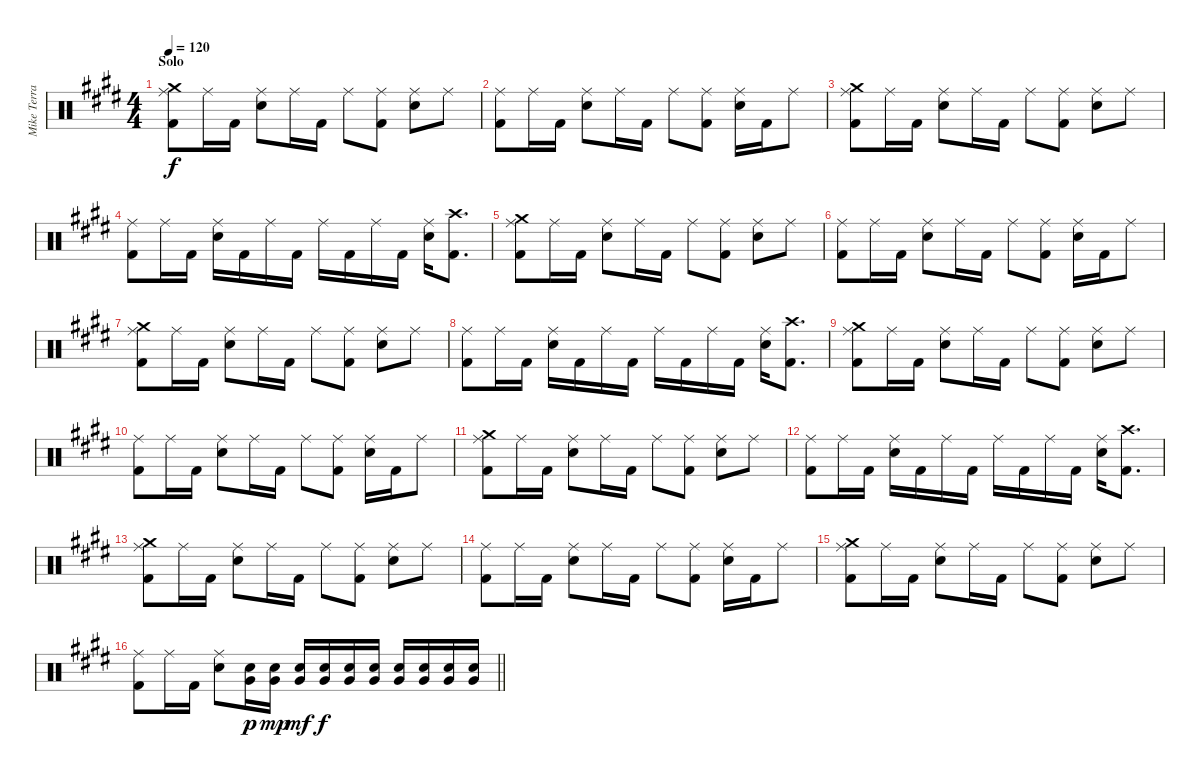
\track ("Mike Terrana" "Mike Terra") {instrument percussion}
\staff {score}
\articulation defaults
\ts (4 4)
\section ("" "Solo")
\tempo 120
\clef neutral
\ks c#minor
("Crash medium (hit)" "Ride (middle)" "Kick (hit) 2").8{dy f} "Ride (middle)".16 "Kick (hit) 2".16 ("Ride (middle)" "Snare (hit) 2").8 "Ride (middle)".16 "Kick (hit) 2".16 "Ride (middle)".8 ("Ride (middle)" "Kick (hit) 2").8 ("Ride (middle)" "Snare (hit) 2").8 "Ride (middle)".8 |
("Ride (middle)" "Kick (hit) 2").8 "Ride (middle)".16 "Kick (hit) 2".16 ("Ride (middle)" "Snare (hit) 2").8 "Ride (middle)".16 "Kick (hit) 2".16 "Ride (middle)".8 ("Ride (middle)" "Kick (hit) 2").8 ("Ride (middle)" "Snare (hit) 2").16 "Kick (hit) 2".16 "Ride (middle)".8 |
("Crash medium (hit)" "Ride (middle)" "Kick (hit) 2").8 "Ride (middle)".16 "Kick (hit) 2".16 ("Ride (middle)" "Snare (hit) 2").8 "Ride (middle)".16 "Kick (hit) 2".16 "Ride (middle)".8 ("Ride (middle)" "Kick (hit) 2").8 ("Ride (middle)" "Snare (hit) 2").8 "Ride (middle)".8 |
("Ride (middle)" "Kick (hit) 2").8 "Ride (middle)".16 "Kick (hit) 2".16 ("Ride (middle)" "Snare (hit) 2").16 "Kick (hit) 2".16 "Ride (middle)".16 "Kick (hit) 2".16 "Ride (middle)".16 "Kick (hit) 2".16 "Ride (middle)".16 "Kick (hit) 2".16 ("Ride (middle)" "Snare (hit) 2").16 ("Crash high (hit)" "Kick (hit) 2").8{d} |
("Crash medium (hit)" "Ride (middle)" "Kick (hit) 2").8 "Ride (middle)".16 "Kick (hit) 2".16 ("Ride (middle)" "Snare (hit) 2").8 "Ride (middle)".16 "Kick (hit) 2".16 "Ride (middle)".8 ("Ride (middle)" "Kick (hit) 2").8 ("Ride (middle)" "Snare (hit) 2").8 "Ride (middle)".8 |
("Ride (middle)" "Kick (hit) 2").8 "Ride (middle)".16 "Kick (hit) 2".16 ("Ride (middle)" "Snare (hit) 2").8 "Ride (middle)".16 "Kick (hit) 2".16 "Ride (middle)".8 ("Ride (middle)" "Kick (hit) 2").8 ("Ride (middle)" "Snare (hit) 2").16 "Kick (hit) 2".16 "Ride (middle)".8 |
("Crash medium (hit)" "Ride (middle)" "Kick (hit) 2").8 "Ride (middle)".16 "Kick (hit) 2".16 ("Ride (middle)" "Snare (hit) 2").8 "Ride (middle)".16 "Kick (hit) 2".16 "Ride (middle)".8 ("Ride (middle)" "Kick (hit) 2").8 ("Ride (middle)" "Snare (hit) 2").8 "Ride (middle)".8 |
("Ride (middle)" "Kick (hit) 2").8 "Ride (middle)".16 "Kick (hit) 2".16 ("Ride (middle)" "Snare (hit) 2").16 "Kick (hit) 2".16 "Ride (middle)".16 "Kick (hit) 2".16 "Ride (middle)".16 "Kick (hit) 2".16 "Ride (middle)".16 "Kick (hit) 2".16 ("Ride (middle)" "Snare (hit) 2").16 ("Crash high (hit)" "Kick (hit) 2").8{d} |
("Crash medium (hit)" "Ride (middle)" "Kick (hit) 2").8 "Ride (middle)".16 "Kick (hit) 2".16 ("Ride (middle)" "Snare (hit) 2").8 "Ride (middle)".16 "Kick (hit) 2".16 "Ride (middle)".8 ("Ride (middle)" "Kick (hit) 2").8 ("Ride (middle)" "Snare (hit) 2").8 "Ride (middle)".8 |
("Ride (middle)" "Kick (hit) 2").8 "Ride (middle)".16 "Kick (hit) 2".16 ("Ride (middle)" "Snare (hit) 2").8 "Ride (middle)".16 "Kick (hit) 2".16 "Ride (middle)".8 ("Ride (middle)" "Kick (hit) 2").8 ("Ride (middle)" "Snare (hit) 2").16 "Kick (hit) 2".16 "Ride (middle)".8 |
("Crash medium (hit)" "Ride (middle)" "Kick (hit) 2").8 "Ride (middle)".16 "Kick (hit) 2".16 ("Ride (middle)" "Snare (hit) 2").8 "Ride (middle)".16 "Kick (hit) 2".16 "Ride (middle)".8 ("Ride (middle)" "Kick (hit) 2").8 ("Ride (middle)" "Snare (hit) 2").8 "Ride (middle)".8 |
("Ride (middle)" "Kick (hit) 2").8 "Ride (middle)".16 "Kick (hit) 2".16 ("Ride (middle)" "Snare (hit) 2").16 "Kick (hit) 2".16 "Ride (middle)".16 "Kick (hit) 2".16 "Ride (middle)".16 "Kick (hit) 2".16 "Ride (middle)".16 "Kick (hit) 2".16 ("Ride (middle)" "Snare (hit) 2").16 ("Crash high (hit)" "Kick (hit) 2").8{d} |
("Crash medium (hit)" "Ride (middle)" "Kick (hit) 2").8 "Ride (middle)".16 "Kick (hit) 2".16 ("Ride (middle)" "Snare (hit) 2").8 "Ride (middle)".16 "Kick (hit) 2".16 "Ride (middle)".8 ("Ride (middle)" "Kick (hit) 2").8 ("Ride (middle)" "Snare (hit) 2").8 "Ride (middle)".8 |
("Ride (middle)" "Kick (hit) 2").8 "Ride (middle)".16 "Kick (hit) 2".16 ("Ride (middle)" "Snare (hit) 2").8 "Ride (middle)".16 "Kick (hit) 2".16 "Ride (middle)".8 ("Ride (middle)" "Kick (hit) 2").8 ("Ride (middle)" "Snare (hit) 2").16 "Kick (hit) 2".16 "Ride (middle)".8 |
("Crash medium (hit)" "Ride (middle)" "Kick (hit) 2").8 "Ride (middle)".16 "Kick (hit) 2".16 ("Ride (middle)" "Snare (hit) 2").8 "Ride (middle)".16 "Kick (hit) 2".16 "Ride (middle)".8 ("Ride (middle)" "Kick (hit) 2").8 ("Ride (middle)" "Snare (hit) 2").8 "Ride (middle)".8 |
\barLineRight lightlight
("Ride (middle)" "Kick (hit) 2").8 "Ride (middle)".16 "Kick (hit) 2".16 ("Ride (middle)" "Snare (hit) 2").8 ("Snare (hit) 2" "Very Low Tom (hit)").16{dy p} ("Snare (hit) 2" "Very Low Tom (hit)").16{dy mp} ("Snare (hit) 2" "Very Low Tom (hit)").16{dy mf} ("Snare (hit) 2" "Very Low Tom (hit)").16{dy f} ("Snare (hit) 2" "Very Low Tom (hit)").16 ("Snare (hit) 2" "Very Low Tom (hit)").16 ("Snare (hit) 2" "Very Low Tom (hit)").16 ("Snare (hit) 2" "Very Low Tom (hit)").16 ("Snare (hit) 2" "Very Low Tom (hit)").16 ("Snare (hit) 2" "Very Low Tom (hit)").16
